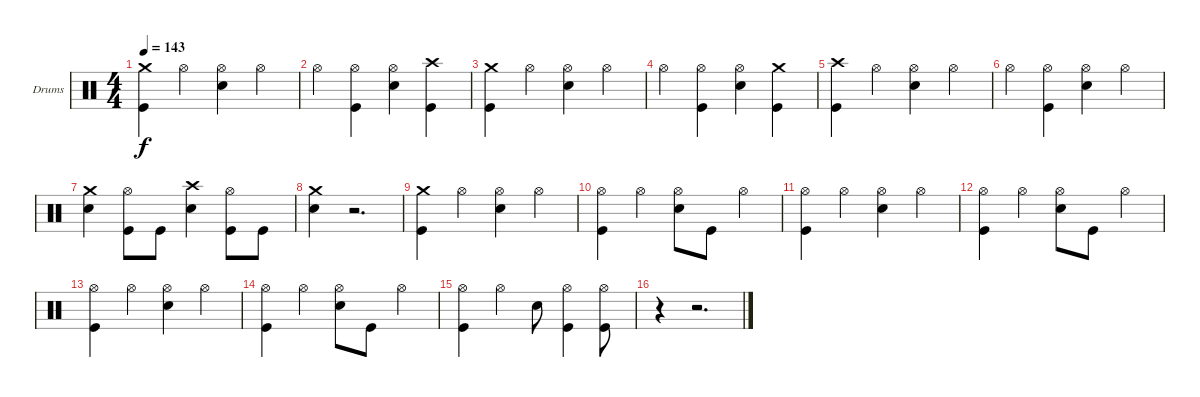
\bracketExtendMode groupsimilarinstruments
\firstSystemTrackNameOrientation horizontal
\otherSystemsTrackNameOrientation horizontal
\track ("Drumkit" "Drums") {instrument percussion}
\staff {score}
\articulation defaults
\ts (4 4)
\tempo 143
\clef neutral
\ks c
("Crash medium (hit)" "Kick (hit)").4{dy f} "Hi-Hat (open)".4 ("Hi-Hat (open)" "Snare (hit) 2").4 "Hi-Hat (open)".4 |
"Hi-Hat (open)".4 ("Hi-Hat (open)" "Kick (hit)").4 ("Hi-Hat (open)" "Snare (hit) 2").4 ("Crash high (hit)" "Kick (hit)").4 |
("Crash medium (hit)" "Kick (hit)").4 "Hi-Hat (open)".4 ("Hi-Hat (open)" "Snare (hit) 2").4 "Hi-Hat (open)".4 |
"Hi-Hat (open)".4 ("Hi-Hat (open)" "Kick (hit)").4 ("Hi-Hat (open)" "Snare (hit) 2").4 ("Crash medium (hit)" "Kick (hit)").4 |
("Crash high (hit)" "Kick (hit)").4 "Hi-Hat (open)".4 ("Hi-Hat (open)" "Snare (hit) 2").4 "Hi-Hat (open)".4 |
"Hi-Hat (open)".4 ("Hi-Hat (open)" "Kick (hit)").4 ("Hi-Hat (open)" "Snare (hit) 2").4 "Hi-Hat (open)".4 |
("Crash medium (hit)" "Snare (hit) 2").4 ("Hi-Hat (open)" "Kick (hit)").8 "Kick (hit)".8 ("Crash high (hit)" "Snare (hit) 2").4 ("Hi-Hat (open)" "Kick (hit)").8 "Kick (hit)".8 |
("Crash medium (hit)" "Snare (hit) 2").4 r.2{d} |
("Crash medium (hit)" "Kick (hit)").4 "Hi-Hat (open)".4 ("Hi-Hat (open)" "Snare (hit) 2").4 "Hi-Hat (open)".4 |
("Hi-Hat (open)" "Kick (hit)").4 "Hi-Hat (open)".4 ("Hi-Hat (open)" "Snare (hit) 2").8 "Kick (hit)".8 "Hi-Hat (open)".4 |
("Hi-Hat (open)" "Kick (hit)").4 "Hi-Hat (open)".4 ("Hi-Hat (open)" "Snare (hit) 2").4 "Hi-Hat (open)".4 |
("Hi-Hat (open)" "Kick (hit)").4 "Hi-Hat (open)".4 ("Hi-Hat (open)" "Snare (hit) 2").8 "Kick (hit)".8 "Hi-Hat (open)".4 |
("Hi-Hat (open)" "Kick (hit)").4 "Hi-Hat (open)".4 ("Hi-Hat (open)" "Snare (hit) 2").4 "Hi-Hat (open)".4 |
("Hi-Hat (open)" "Kick (hit)").4 "Hi-Hat (open)".4 ("Hi-Hat (open)" "Snare (hit) 2").8 "Kick (hit)".8 "Hi-Hat (open)".4 |
("Hi-Hat (open)" "Kick (hit)").4 "Hi-Hat (open)".4 "Snare (hit) 2".8 ("Hi-Hat (open)" "Kick (hit)").4 ("Hi-Hat (open)" "Kick (hit)").8 |
r.4 r.2{d}
